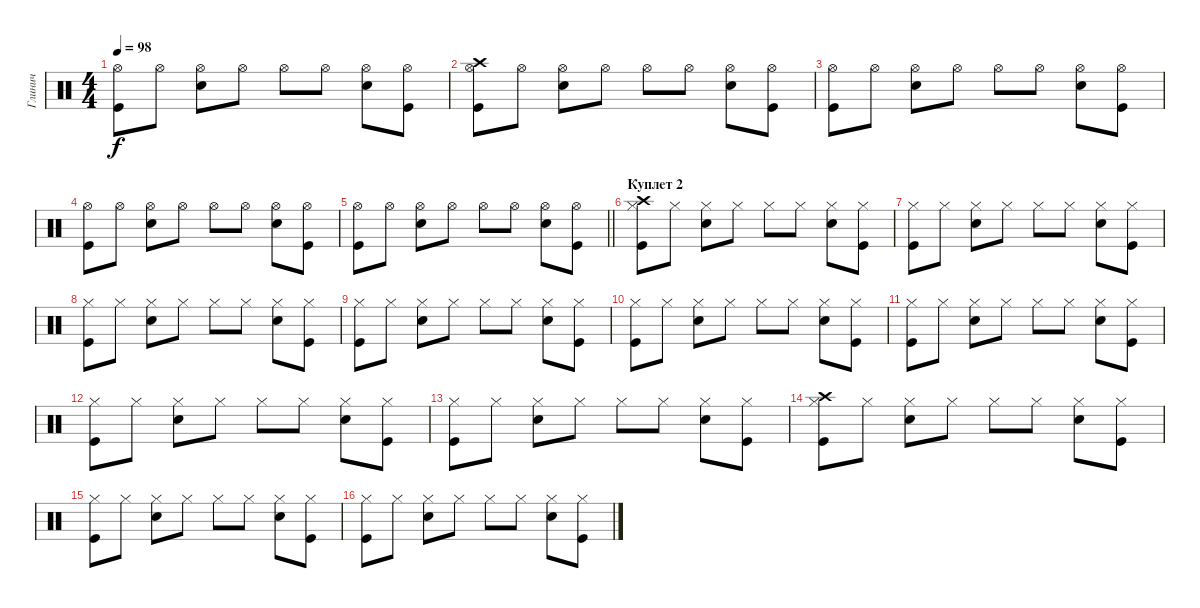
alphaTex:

\track ("Глинич" "Глинич") {instrument percussion}
\staff {score}
\articulation defaults
\ts (4 4)
\tempo 98
\clef neutral
\ks c
("Hi-Hat (open)" "Kick (hit)").8{dy f} "Hi-Hat (open)".8 ("Hi-Hat (open)" "Snare (hit) 2").8 "Hi-Hat (open)".8 "Hi-Hat (open)".8 "Hi-Hat (open)".8 ("Hi-Hat (open)" "Snare (hit) 2").8 ("Hi-Hat (open)" "Kick (hit)").8 |
("Hi-Hat (open)" "Kick (hit)" "Crash high (hit)").8 "Hi-Hat (open)".8 ("Hi-Hat (open)" "Snare (hit) 2").8 "Hi-Hat (open)".8 "Hi-Hat (open)".8 "Hi-Hat (open)".8 ("Hi-Hat (open)" "Snare (hit) 2").8 ("Hi-Hat (open)" "Kick (hit)").8 |
("Hi-Hat (open)" "Kick (hit)").8 "Hi-Hat (open)".8 ("Hi-Hat (open)" "Snare (hit) 2").8 "Hi-Hat (open)".8 "Hi-Hat (open)".8 "Hi-Hat (open)".8 ("Hi-Hat (open)" "Snare (hit) 2").8 ("Hi-Hat (open)" "Kick (hit)").8 |
("Hi-Hat (open)" "Kick (hit)").8 "Hi-Hat (open)".8 ("Hi-Hat (open)" "Snare (hit) 2").8 "Hi-Hat (open)".8 "Hi-Hat (open)".8 "Hi-Hat (open)".8 ("Hi-Hat (open)" "Snare (hit) 2").8 ("Hi-Hat (open)" "Kick (hit)").8 |
\barLineRight lightlight
("Hi-Hat (open)" "Kick (hit)").8 "Hi-Hat (open)".8 ("Hi-Hat (open)" "Snare (hit) 2").8 "Hi-Hat (open)".8 "Hi-Hat (open)".8 "Hi-Hat (open)".8 ("Hi-Hat (open)" "Snare (hit) 2").8 ("Hi-Hat (open)" "Kick (hit)").8 |
\section ("" "Куплет 2")
("Hi-Hat (closed)" "Kick (hit)" "Crash high (hit)").8 "Hi-Hat (closed)".8 ("Hi-Hat (closed)" "Snare (hit) 2").8 "Hi-Hat (closed)".8 "Hi-Hat (closed)".8 "Hi-Hat (closed)".8 ("Hi-Hat (closed)" "Snare (hit) 2").8 ("Hi-Hat (closed)" "Kick (hit)").8 |
("Hi-Hat (closed)" "Kick (hit)").8 "Hi-Hat (closed)".8 ("Hi-Hat (closed)" "Snare (hit) 2").8 "Hi-Hat (closed)".8 "Hi-Hat (closed)".8 "Hi-Hat (closed)".8 ("Hi-Hat (closed)" "Snare (hit) 2").8 ("Hi-Hat (closed)" "Kick (hit)").8 |
("Hi-Hat (closed)" "Kick (hit)").8 "Hi-Hat (closed)".8 ("Hi-Hat (closed)" "Snare (hit) 2").8 "Hi-Hat (closed)".8 "Hi-Hat (closed)".8 "Hi-Hat (closed)".8 ("Hi-Hat (closed)" "Snare (hit) 2").8 ("Hi-Hat (closed)" "Kick (hit)").8 |
("Hi-Hat (closed)" "Kick (hit)").8 "Hi-Hat (closed)".8 ("Hi-Hat (closed)" "Snare (hit) 2").8 "Hi-Hat (closed)".8 "Hi-Hat (closed)".8 "Hi-Hat (closed)".8 ("Hi-Hat (closed)" "Snare (hit) 2").8 ("Hi-Hat (closed)" "Kick (hit)").8 |
("Hi-Hat (closed)" "Kick (hit)").8 "Hi-Hat (closed)".8 ("Hi-Hat (closed)" "Snare (hit) 2").8 "Hi-Hat (closed)".8 "Hi-Hat (closed)".8 "Hi-Hat (closed)".8 ("Hi-Hat (closed)" "Snare (hit) 2").8 ("Hi-Hat (closed)" "Kick (hit)").8 |
("Hi-Hat (closed)" "Kick (hit)").8 "Hi-Hat (closed)".8 ("Hi-Hat (closed)" "Snare (hit) 2").8 "Hi-Hat (closed)".8 "Hi-Hat (closed)".8 "Hi-Hat (closed)".8 ("Hi-Hat (closed)" "Snare (hit) 2").8 ("Hi-Hat (closed)" "Kick (hit)").8 |
("Hi-Hat (closed)" "Kick (hit)").8 "Hi-Hat (closed)".8 ("Hi-Hat (closed)" "Snare (hit) 2").8 "Hi-Hat (closed)".8 "Hi-Hat (closed)".8 "Hi-Hat (closed)".8 ("Hi-Hat (closed)" "Snare (hit) 2").8 ("Hi-Hat (closed)" "Kick (hit)").8 |
("Hi-Hat (closed)" "Kick (hit)").8 "Hi-Hat (closed)".8 ("Hi-Hat (closed)" "Snare (hit) 2").8 "Hi-Hat (closed)".8 "Hi-Hat (closed)".8 "Hi-Hat (closed)".8 ("Hi-Hat (closed)" "Snare (hit) 2").8 ("Hi-Hat (closed)" "Kick (hit)").8 |
("Hi-Hat (closed)" "Kick (hit)" "Crash high (hit)").8 "Hi-Hat (closed)".8 ("Hi-Hat (closed)" "Snare (hit) 2").8 "Hi-Hat (closed)".8 "Hi-Hat (closed)".8 "Hi-Hat (closed)".8 ("Hi-Hat (closed)" "Snare (hit) 2").8 ("Hi-Hat (closed)" "Kick (hit)").8 |
("Hi-Hat (closed)" "Kick (hit)").8 "Hi-Hat (closed)".8 ("Hi-Hat (closed)" "Snare (hit) 2").8 "Hi-Hat (closed)".8 "Hi-Hat (closed)".8 "Hi-Hat (closed)".8 ("Hi-Hat (closed)" "Snare (hit) 2").8 ("Hi-Hat (closed)" "Kick (hit)").8 |
("Hi-Hat (closed)" "Kick (hit)").8 "Hi-Hat (closed)".8 ("Hi-Hat (closed)" "Snare (hit) 2").8 "Hi-Hat (closed)".8 "Hi-Hat (closed)".8 "Hi-Hat (closed)".8 ("Hi-Hat (closed)" "Snare (hit) 2").8 ("Hi-Hat (closed)" "Kick (hit)").8
